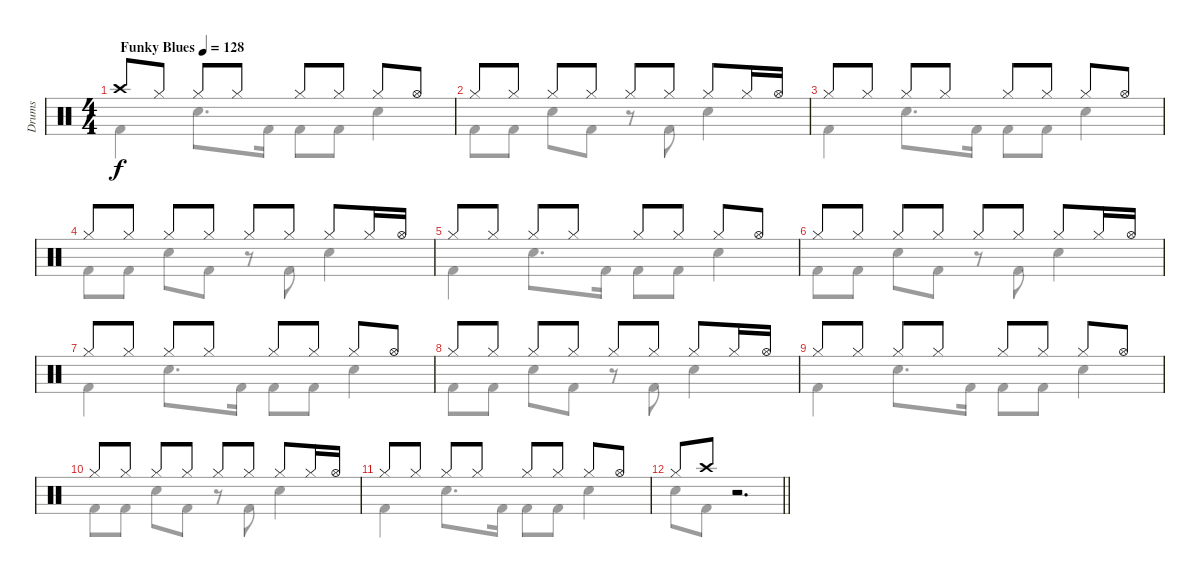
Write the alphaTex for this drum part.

\track ("Drums" "Drums") {instrument percussion}
\staff {score}
\articulation defaults
\voice
\ts (4 4)
\tempo (128 "Funky Blues")
\clef neutral
\ks c "Crash high (hit)".8{dy f} "Hi-Hat (closed)".8 "Hi-Hat (closed)".8 "Hi-Hat (closed)".8 "Hi-Hat (closed)".8 "Hi-Hat (closed)".8 "Hi-Hat (closed)".8 "Hi-Hat (open)".8
|
"Hi-Hat (closed)".8 "Hi-Hat (closed)".8 "Hi-Hat (closed)".8 "Hi-Hat (closed)".8 "Hi-Hat (closed)".8 "Hi-Hat (closed)".8 "Hi-Hat (closed)".8 "Hi-Hat (closed)".16 "Hi-Hat (open)".16 |
"Hi-Hat (closed)".8 "Hi-Hat (closed)".8 "Hi-Hat (closed)".8 "Hi-Hat (closed)".8 "Hi-Hat (closed)".8 "Hi-Hat (closed)".8 "Hi-Hat (closed)".8 "Hi-Hat (open)".8 |
"Hi-Hat (closed)".8 "Hi-Hat (closed)".8 "Hi-Hat (closed)".8 "Hi-Hat (closed)".8 "Hi-Hat (closed)".8 "Hi-Hat (closed)".8 "Hi-Hat (closed)".8 "Hi-Hat (closed)".16 "Hi-Hat (open)".16 |
"Hi-Hat (closed)".8 "Hi-Hat (closed)".8 "Hi-Hat (closed)".8 "Hi-Hat (closed)".8 "Hi-Hat (closed)".8 "Hi-Hat (closed)".8 "Hi-Hat (closed)".8 "Hi-Hat (open)".8 |
"Hi-Hat (closed)".8 "Hi-Hat (closed)".8 "Hi-Hat (closed)".8 "Hi-Hat (closed)".8 "Hi-Hat (closed)".8 "Hi-Hat (closed)".8 "Hi-Hat (closed)".8 "Hi-Hat (closed)".16 "Hi-Hat (open)".16 |
"Hi-Hat (closed)".8 "Hi-Hat (closed)".8 "Hi-Hat (closed)".8 "Hi-Hat (closed)".8 "Hi-Hat (closed)".8 "Hi-Hat (closed)".8 "Hi-Hat (closed)".8 "Hi-Hat (open)".8 |
"Hi-Hat (closed)".8 "Hi-Hat (closed)".8 "Hi-Hat (closed)".8 "Hi-Hat (closed)".8 "Hi-Hat (closed)".8 "Hi-Hat (closed)".8 "Hi-Hat (closed)".8 "Hi-Hat (closed)".16 "Hi-Hat (open)".16 |
"Hi-Hat (closed)".8 "Hi-Hat (closed)".8 "Hi-Hat (closed)".8 "Hi-Hat (closed)".8 "Hi-Hat (closed)".8 "Hi-Hat (closed)".8 "Hi-Hat (closed)".8 "Hi-Hat (open)".8 |
"Hi-Hat (closed)".8 "Hi-Hat (closed)".8 "Hi-Hat (closed)".8 "Hi-Hat (closed)".8 "Hi-Hat (closed)".8 "Hi-Hat (closed)".8 "Hi-Hat (closed)".8 "Hi-Hat (closed)".16 "Hi-Hat (open)".16 |
"Hi-Hat (closed)".8 "Hi-Hat (closed)".8 "Hi-Hat (closed)".8 "Hi-Hat (closed)".8 "Hi-Hat (closed)".8 "Hi-Hat (closed)".8 "Hi-Hat (closed)".8 "Hi-Hat (open)".8 |
\barLineRight lightlight "Hi-Hat (closed)".8 "Crash high (hit)".8
r.2{d}
\voice
\clef neutral
\ottava regular
\simile none
\ks c "Kick (hit) 2".4{dy f} "Electric Snare (hit)".8{d} "Kick (hit) 2".16 "Kick (hit) 2".8 "Kick (hit) 2".8 "Electric Snare (hit)".4
|
"Kick (hit) 2".8 "Kick (hit) 2".8 "Electric Snare (hit)".8 "Kick (hit) 2".8 r.8 "Kick (hit) 2".8 "Electric Snare (hit)".4 |
"Kick (hit) 2".4 "Electric Snare (hit)".8{d} "Kick (hit) 2".16 "Kick (hit) 2".8 "Kick (hit) 2".8 "Electric Snare (hit)".4 |
"Kick (hit) 2".8 "Kick (hit) 2".8 "Electric Snare (hit)".8 "Kick (hit) 2".8 r.8 "Kick (hit) 2".8 "Electric Snare (hit)".4 |
"Kick (hit) 2".4 "Electric Snare (hit)".8{d} "Kick (hit) 2".16 "Kick (hit) 2".8 "Kick (hit) 2".8 "Electric Snare (hit)".4 |
"Kick (hit) 2".8 "Kick (hit) 2".8 "Electric Snare (hit)".8 "Kick (hit) 2".8 r.8 "Kick (hit) 2".8 "Electric Snare (hit)".4 |
"Kick (hit) 2".4 "Electric Snare (hit)".8{d} "Kick (hit) 2".16 "Kick (hit) 2".8 "Kick (hit) 2".8 "Electric Snare (hit)".4 |
"Kick (hit) 2".8 "Kick (hit) 2".8 "Electric Snare (hit)".8 "Kick (hit) 2".8 r.8 "Kick (hit) 2".8 "Electric Snare (hit)".4 |
"Kick (hit) 2".4 "Electric Snare (hit)".8{d} "Kick (hit) 2".16 "Kick (hit) 2".8 "Kick (hit) 2".8 "Electric Snare (hit)".4 |
"Kick (hit) 2".8 "Kick (hit) 2".8 "Electric Snare (hit)".8 "Kick (hit) 2".8 r.8 "Kick (hit) 2".8 "Electric Snare (hit)".4 |
"Kick (hit) 2".4 "Electric Snare (hit)".8{d} "Kick (hit) 2".16 "Kick (hit) 2".8 "Kick (hit) 2".8 "Electric Snare (hit)".4 |
\barLineRight lightlight "Electric Snare (hit)".8 "Kick (hit) 2".8
r.2{d}
